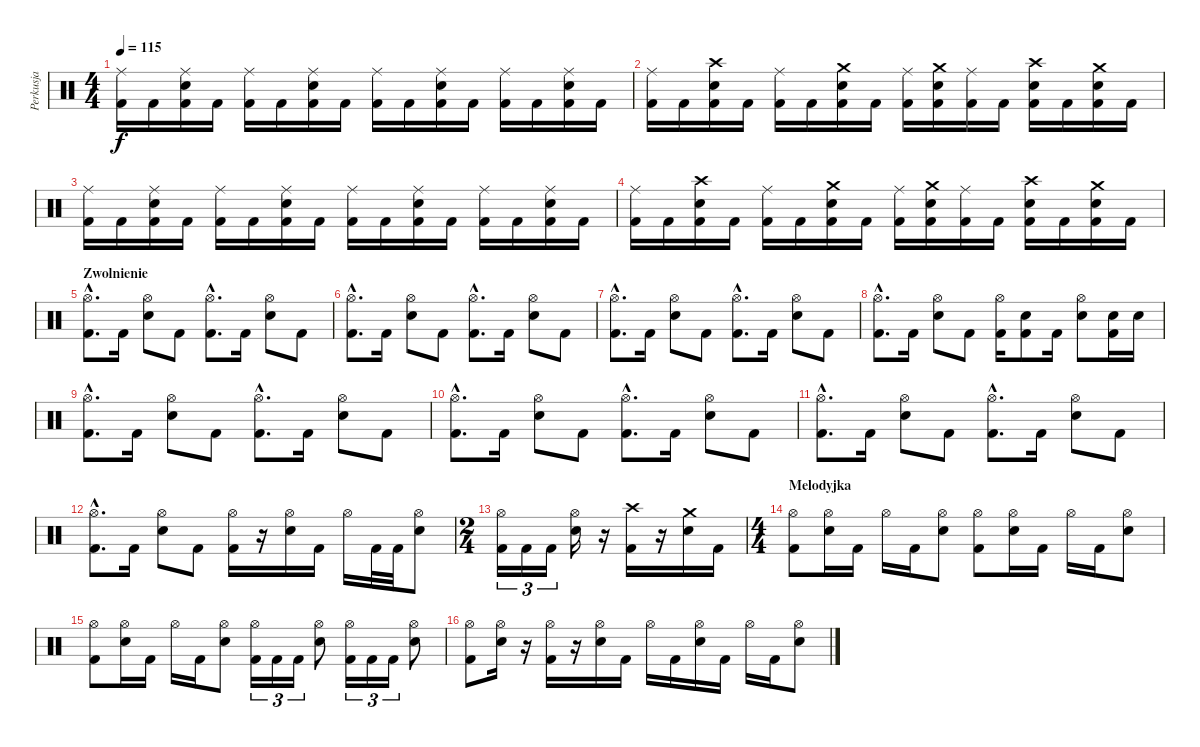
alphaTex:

\track ("Perkusja" "Perkusja") {instrument percussion}
\staff {score}
\articulation defaults
\ts (4 4)
\tempo 115
\clef neutral
\ks c
("Ride (middle)" "Kick (hit) 2").16{dy f} "Kick (hit) 2".16 ("Ride (middle)" "Snare (hit) 2" "Kick (hit) 2").16 "Kick (hit) 2".16 ("Ride (middle)" "Kick (hit) 2").16 "Kick (hit) 2".16 ("Ride (middle)" "Snare (hit) 2" "Kick (hit) 2").16 "Kick (hit) 2".16 ("Ride (middle)" "Kick (hit) 2").16 "Kick (hit) 2".16 ("Ride (middle)" "Snare (hit) 2" "Kick (hit) 2").16 "Kick (hit) 2".16 ("Ride (middle)" "Kick (hit) 2").16 "Kick (hit) 2".16 ("Ride (middle)" "Snare (hit) 2" "Kick (hit) 2").16 "Kick (hit) 2".16 |
("Ride (middle)" "Kick (hit) 2").16 "Kick (hit) 2".16 ("Crash high (hit)" "Snare (hit) 2" "Kick (hit) 2").16 "Kick (hit) 2".16 ("Ride (middle)" "Kick (hit) 2").16 "Kick (hit) 2".16 ("Crash medium (hit)" "Snare (hit) 2" "Kick (hit) 2").16 "Kick (hit) 2".16 ("Ride (middle)" "Kick (hit) 2").16 ("Crash medium (hit)" "Snare (hit) 2" "Kick (hit) 2").16 ("Ride (middle)" "Kick (hit) 2").16 "Kick (hit) 2".16 ("Crash high (hit)" "Snare (hit) 2" "Kick (hit) 2").16 "Kick (hit) 2".16 ("Crash medium (hit)" "Snare (hit) 2" "Kick (hit) 2").16 "Kick (hit) 2".16 |
("Ride (middle)" "Kick (hit) 2").16 "Kick (hit) 2".16 ("Ride (middle)" "Snare (hit) 2" "Kick (hit) 2").16 "Kick (hit) 2".16 ("Ride (middle)" "Kick (hit) 2").16 "Kick (hit) 2".16 ("Ride (middle)" "Snare (hit) 2" "Kick (hit) 2").16 "Kick (hit) 2".16 ("Ride (middle)" "Kick (hit) 2").16 "Kick (hit) 2".16 ("Ride (middle)" "Snare (hit) 2" "Kick (hit) 2").16 "Kick (hit) 2".16 ("Ride (middle)" "Kick (hit) 2").16 "Kick (hit) 2".16 ("Ride (middle)" "Snare (hit) 2" "Kick (hit) 2").16 "Kick (hit) 2".16 |
("Ride (middle)" "Kick (hit) 2").16 "Kick (hit) 2".16 ("Crash high (hit)" "Snare (hit) 2" "Kick (hit) 2").16 "Kick (hit) 2".16 ("Ride (middle)" "Kick (hit) 2").16 "Kick (hit) 2".16 ("Crash medium (hit)" "Snare (hit) 2" "Kick (hit) 2").16 "Kick (hit) 2".16 ("Ride (middle)" "Kick (hit) 2").16 ("Crash medium (hit)" "Snare (hit) 2" "Kick (hit) 2").16 ("Ride (middle)" "Kick (hit) 2").16 "Kick (hit) 2".16 ("Crash high (hit)" "Snare (hit) 2" "Kick (hit) 2").16 "Kick (hit) 2".16 ("Crash medium (hit)" "Snare (hit) 2" "Kick (hit) 2").16 "Kick (hit) 2".16 |
\section ("" "Zwolnienie")
("Hi-Hat (open)"{hac} "Kick (hit) 2"{hac}).8{d} "Kick (hit) 2".16 ("Hi-Hat (open)" "Snare (hit) 2").8 "Kick (hit) 2".8 ("Hi-Hat (open)"{hac} "Kick (hit) 2"{hac}).8{d} "Kick (hit) 2".16 ("Hi-Hat (open)" "Snare (hit) 2").8 "Kick (hit) 2".8 |
("Hi-Hat (open)"{hac} "Kick (hit) 2"{hac}).8{d} "Kick (hit) 2".16 ("Hi-Hat (open)" "Snare (hit) 2").8 "Kick (hit) 2".8 ("Hi-Hat (open)"{hac} "Kick (hit) 2"{hac}).8{d} "Kick (hit) 2".16 ("Hi-Hat (open)" "Snare (hit) 2").8 "Kick (hit) 2".8 |
("Hi-Hat (open)"{hac} "Kick (hit) 2"{hac}).8{d} "Kick (hit) 2".16 ("Hi-Hat (open)" "Snare (hit) 2").8 "Kick (hit) 2".8 ("Hi-Hat (open)"{hac} "Kick (hit) 2"{hac}).8{d} "Kick (hit) 2".16 ("Hi-Hat (open)" "Snare (hit) 2").8 "Kick (hit) 2".8 |
("Hi-Hat (open)"{hac} "Kick (hit) 2"{hac}).8{d} "Kick (hit) 2".16 ("Hi-Hat (open)" "Snare (hit) 2").8 "Kick (hit) 2".8 ("Hi-Hat (open)" "Kick (hit) 2").16 ("Snare (hit) 2" "Kick (hit) 2").8 "Kick (hit) 2".16 ("Hi-Hat (open)" "Snare (hit) 2").8 ("Snare (hit) 2" "Kick (hit) 2").16 "Snare (hit) 2".16 |
("Hi-Hat (open)"{hac} "Kick (hit) 2"{hac}).8{d} "Kick (hit) 2".16 ("Hi-Hat (open)" "Snare (hit) 2").8 "Kick (hit) 2".8 ("Hi-Hat (open)"{hac} "Kick (hit) 2"{hac}).8{d} "Kick (hit) 2".16 ("Hi-Hat (open)" "Snare (hit) 2").8 "Kick (hit) 2".8 |
("Hi-Hat (open)"{hac} "Kick (hit) 2"{hac}).8{d} "Kick (hit) 2".16 ("Hi-Hat (open)" "Snare (hit) 2").8 "Kick (hit) 2".8 ("Hi-Hat (open)"{hac} "Kick (hit) 2"{hac}).8{d} "Kick (hit) 2".16 ("Hi-Hat (open)" "Snare (hit) 2").8 "Kick (hit) 2".8 |
("Hi-Hat (open)"{hac} "Kick (hit) 2"{hac}).8{d} "Kick (hit) 2".16 ("Hi-Hat (open)" "Snare (hit) 2").8 "Kick (hit) 2".8 ("Hi-Hat (open)"{hac} "Kick (hit) 2"{hac}).8{d} "Kick (hit) 2".16 ("Hi-Hat (open)" "Snare (hit) 2").8 "Kick (hit) 2".8 |
("Hi-Hat (open)"{hac} "Kick (hit) 2"{hac}).8{d} "Kick (hit) 2".16 ("Hi-Hat (open)" "Snare (hit) 2").8 "Kick (hit) 2".8 ("Hi-Hat (open)" "Kick (hit) 2").16 r.16 ("Hi-Hat (open)" "Snare (hit) 2").16 "Kick (hit) 2".16 "Hi-Hat (open)".16 "Kick (hit) 2".32 "Kick (hit) 2".32 ("Hi-Hat (open)" "Snare (hit) 2").8 |
\ts (2 4)
("Hi-Hat (open)" "Kick (hit) 2").16{tu (3 2)} "Kick (hit) 2".16{tu (3 2)} "Kick (hit) 2".16{tu (3 2)} ("Hi-Hat (open)" "Snare (hit) 2").16 r.16 ("Crash high (hit)" "Kick (hit) 2").16 r.16 ("Crash medium (hit)" "Snare (hit) 2").16 "Kick (hit) 2".16 |
\ts (4 4)
\section ("" "Melodyjka")
("Hi-Hat (open)" "Kick (hit) 2").8 ("Hi-Hat (open)" "Snare (hit) 2").16 "Kick (hit) 2".16 "Hi-Hat (open)".16 "Kick (hit) 2".16 ("Hi-Hat (open)" "Snare (hit) 2").8 ("Hi-Hat (open)" "Kick (hit) 2").8 ("Hi-Hat (open)" "Snare (hit) 2").16 "Kick (hit) 2".16 "Hi-Hat (open)".16 "Kick (hit) 2".16 ("Hi-Hat (open)" "Snare (hit) 2").8 |
("Hi-Hat (open)" "Kick (hit) 2").8 ("Hi-Hat (open)" "Snare (hit) 2").16 "Kick (hit) 2".16 "Hi-Hat (open)".16 "Kick (hit) 2".16 ("Hi-Hat (open)" "Snare (hit) 2").8 ("Hi-Hat (open)" "Kick (hit) 2").16{tu (3 2)} "Kick (hit) 2".16{tu (3 2)} "Kick (hit) 2".16{tu (3 2)} ("Hi-Hat (open)" "Snare (hit) 2").8 ("Hi-Hat (open)" "Kick (hit) 2").16{tu (3 2)} "Kick (hit) 2".16{tu (3 2)} "Kick (hit) 2".16{tu (3 2)} ("Hi-Hat (open)" "Snare (hit) 2").8 |
("Hi-Hat (open)" "Kick (hit) 2").8 ("Hi-Hat (open)" "Snare (hit) 2").16 r.16 ("Hi-Hat (open)" "Kick (hit) 2").16 r.16 ("Hi-Hat (open)" "Snare (hit) 2").16 "Kick (hit) 2".16 "Hi-Hat (open)".16 "Kick (hit) 2".16 ("Hi-Hat (open)" "Snare (hit) 2").16 "Kick (hit) 2".16 "Hi-Hat (open)".16 "Kick (hit) 2".16 ("Hi-Hat (open)" "Snare (hit) 2").8
